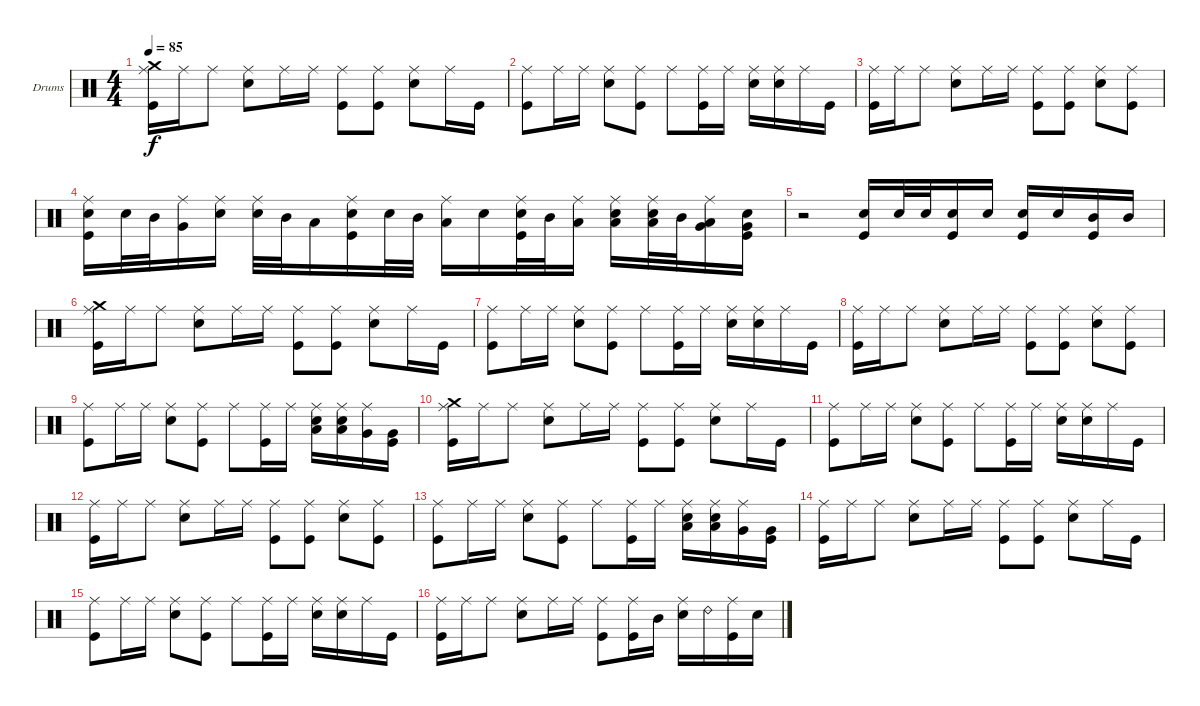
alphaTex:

\bracketExtendMode groupsimilarinstruments
\firstSystemTrackNameOrientation horizontal
\otherSystemsTrackNameOrientation horizontal
\track ("Drumkit" "Drums") {instrument percussion}
\staff {score}
\articulation defaults
\ts (4 4)
\tempo 85
\clef neutral
\ks c
("Kick (hit)" "Crash medium (hit)" "Ride (middle)").16{dy f} "Ride (middle)".16 "Ride (middle)".8 ("Snare (hit) 2" "Ride (middle)").8 "Ride (middle)".16 "Ride (middle)".16 ("Kick (hit)" "Ride (middle)").8 ("Kick (hit)" "Ride (middle)").8 ("Snare (hit) 2" "Ride (middle)").8 "Ride (middle)".16 "Kick (hit)".16 |
("Kick (hit)" "Ride (middle)").8 "Ride (middle)".16 "Ride (middle)".16 ("Snare (hit) 2" "Ride (middle)").8 ("Kick (hit)" "Ride (middle)").8 "Ride (middle)".8 ("Kick (hit)" "Ride (middle)").16 "Ride (middle)".16 ("Snare (hit) 2" "Ride (middle)").16 ("Snare (hit) 2" "Ride (middle)").16 "Ride (middle)".16 "Kick (hit)".16 |
("Kick (hit)" "Ride (middle)").16 "Ride (middle)".16 "Ride (middle)".8 ("Snare (hit) 2" "Ride (middle)").8 "Ride (middle)".16 "Ride (middle)".16 ("Kick (hit)" "Ride (middle)").8 ("Kick (hit)" "Ride (middle)").8 ("Snare (hit) 2" "Ride (middle)").8 ("Kick (hit)" "Ride (middle)").8 |
("Kick (hit)" "Snare (hit) 2" "Ride (middle)").16 "Snare (hit) 2".32 "Mid Tom (hit)".32 ("Very Low Tom (hit)" "Ride (middle)").16 ("Snare (hit) 2" "Ride (middle)").16 ("Snare (hit) 2" "Ride (middle)").32 "Mid Tom (hit)".32 "Low Tom (hit)".16 ("Kick (hit)" "Snare (hit) 2" "Ride (middle)").16 "Snare (hit) 2".32 "Mid Tom (hit)".32 ("Low Tom (hit)" "Ride (middle)").16 "Snare (hit) 2".16 ("Kick (hit)" "Snare (hit) 2" "Ride (middle)").32 "Mid Tom (hit)".32 ("Low Tom (hit)" "Ride (middle)").16 ("Snare (hit) 2" "Low Tom (hit)" "Ride (middle)").16 ("Snare (hit) 2" "Low Tom (hit)" "Ride (middle)").32 "Mid Tom (hit)".32 ("Very Low Tom (hit)" "Low Tom (hit)" "Ride (middle)").16 ("Kick (hit)" "Snare (hit) 2" "Very Low Tom (hit)").16 |
r.2 ("Kick (hit)" "Snare (hit) 2").16 "Snare (hit) 2".32 "Snare (hit) 2".32 ("Kick (hit)" "Snare (hit) 2").16 "Snare (hit) 2".16 ("Kick (hit)" "Snare (hit) 2").16 "Snare (hit) 2".16 ("Kick (hit)" "Mid Tom (hit)").16 "Mid Tom (hit)".16 |
("Kick (hit)" "Crash medium (hit)" "Ride (middle)").16 "Ride (middle)".16 "Ride (middle)".8 ("Snare (hit) 2" "Ride (middle)").8 "Ride (middle)".16 "Ride (middle)".16 ("Kick (hit)" "Ride (middle)").8 ("Kick (hit)" "Ride (middle)").8 ("Snare (hit) 2" "Ride (middle)").8 "Ride (middle)".16 "Kick (hit)".16 |
("Kick (hit)" "Ride (middle)").8 "Ride (middle)".16 "Ride (middle)".16 ("Snare (hit) 2" "Ride (middle)").8 ("Kick (hit)" "Ride (middle)").8 "Ride (middle)".8 ("Kick (hit)" "Ride (middle)").16 "Ride (middle)".16 ("Snare (hit) 2" "Ride (middle)").16 ("Snare (hit) 2" "Ride (middle)").16 "Ride (middle)".16 "Kick (hit)".16 |
("Kick (hit)" "Ride (middle)").16 "Ride (middle)".16 "Ride (middle)".8 ("Snare (hit) 2" "Ride (middle)").8 "Ride (middle)".16 "Ride (middle)".16 ("Kick (hit)" "Ride (middle)").8 ("Kick (hit)" "Ride (middle)").8 ("Snare (hit) 2" "Ride (middle)").8 ("Kick (hit)" "Ride (middle)").8 |
("Kick (hit)" "Ride (middle)").8 "Ride (middle)".16 "Ride (middle)".16 ("Snare (hit) 2" "Ride (middle)").8 ("Kick (hit)" "Ride (middle)").8 "Ride (middle)".8 ("Kick (hit)" "Ride (middle)").16 "Ride (middle)".16 ("Snare (hit) 2" "Low Tom (hit)" "Ride (middle)").16 ("Snare (hit) 2" "Low Tom (hit)" "Ride (middle)").16 ("Very Low Tom (hit)" "Ride (middle)").16 ("Kick (hit)" "Very Low Tom (hit)").16 |
("Kick (hit)" "Crash medium (hit)" "Ride (middle)").16 "Ride (middle)".16 "Ride (middle)".8 ("Snare (hit) 2" "Ride (middle)").8 "Ride (middle)".16 "Ride (middle)".16 ("Kick (hit)" "Ride (middle)").8 ("Kick (hit)" "Ride (middle)").8 ("Snare (hit) 2" "Ride (middle)").8 "Ride (middle)".16 "Kick (hit)".16 |
("Kick (hit)" "Ride (middle)").8 "Ride (middle)".16 "Ride (middle)".16 ("Snare (hit) 2" "Ride (middle)").8 ("Kick (hit)" "Ride (middle)").8 "Ride (middle)".8 ("Kick (hit)" "Ride (middle)").16 "Ride (middle)".16 ("Snare (hit) 2" "Ride (middle)").16 ("Snare (hit) 2" "Ride (middle)").16 "Ride (middle)".16 "Kick (hit)".16 |
("Kick (hit)" "Ride (middle)").16 "Ride (middle)".16 "Ride (middle)".8 ("Snare (hit) 2" "Ride (middle)").8 "Ride (middle)".16 "Ride (middle)".16 ("Kick (hit)" "Ride (middle)").8 ("Kick (hit)" "Ride (middle)").8 ("Snare (hit) 2" "Ride (middle)").8 ("Kick (hit)" "Ride (middle)").8 |
("Kick (hit)" "Ride (middle)").8 "Ride (middle)".16 "Ride (middle)".16 ("Snare (hit) 2" "Ride (middle)").8 ("Kick (hit)" "Ride (middle)").8 "Ride (middle)".8 ("Kick (hit)" "Ride (middle)").16 "Ride (middle)".16 ("Snare (hit) 2" "Low Tom (hit)" "Ride (middle)").16 ("Snare (hit) 2" "Low Tom (hit)" "Ride (middle)").16 ("Very Low Tom (hit)" "Ride (middle)").16 ("Kick (hit)" "Very Low Tom (hit)").16 |
("Kick (hit)" "Ride (middle)").16 "Ride (middle)".16 "Ride (middle)".8 ("Snare (hit) 2" "Ride (middle)").8 "Ride (middle)".16 "Ride (middle)".16 ("Kick (hit)" "Ride (middle)").8 ("Kick (hit)" "Ride (middle)").8 ("Snare (hit) 2" "Ride (middle)").8 "Ride (middle)".16 "Kick (hit)".16 |
("Kick (hit)" "Ride (middle)").8 "Ride (middle)".16 "Ride (middle)".16 ("Snare (hit) 2" "Ride (middle)").8 ("Kick (hit)" "Ride (middle)").8 "Ride (middle)".8 ("Kick (hit)" "Ride (middle)").16 "Ride (middle)".16 ("Snare (hit) 2" "Ride (middle)").16 ("Snare (hit) 2" "Ride (middle)").16 "Ride (middle)".16 "Kick (hit)".16 |
("Kick (hit)" "Ride (middle)").16 "Ride (middle)".16 "Ride (middle)".8 ("Snare (hit) 2" "Ride (middle)").8 "Ride (middle)".16 "Ride (middle)".16 ("Kick (hit)" "Ride (middle)").8 ("Kick (hit)" "Ride (middle)").16 "Mid Tom (hit)".16 ("Snare (hit) 2" "Ride (middle)").16 "Ride (bell) 2".16 ("Kick (hit)" "Ride (middle)").16 "Snare (hit) 2".16
